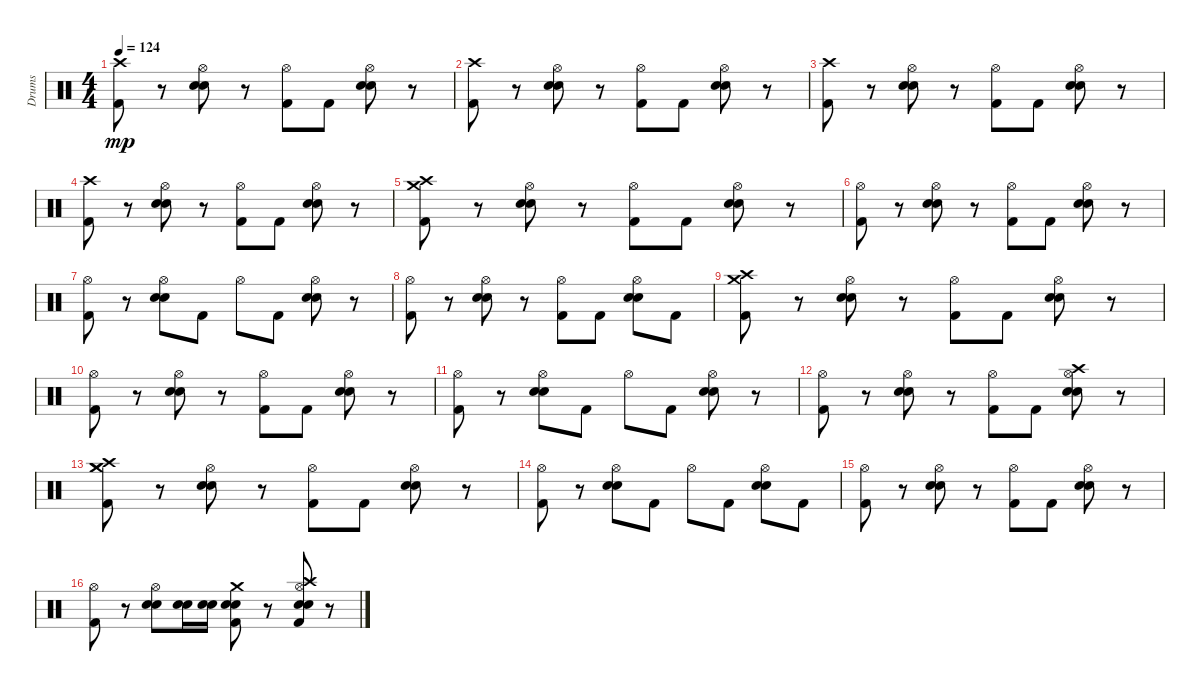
\track ("Drums" "Drums") {instrument percussion}
\staff {score}
\articulation defaults
\ts (4 4)
\tempo 124
\clef neutral
\ks c
("Kick (hit) 2" "Crash high (hit)").8{dy mp} r.8 ("Hi-Hat (open)" "Electric Snare (hit)" "Snare (hit) 2").8 r.8 ("Kick (hit) 2" "Hi-Hat (open)").8 "Kick (hit) 2".8 ("Electric Snare (hit)" "Snare (hit) 2" "Hi-Hat (open)").8 r.8 |
("Crash high (hit)" "Kick (hit) 2").8 r.8 ("Hi-Hat (open)" "Snare (hit) 2" "Electric Snare (hit)").8 r.8 ("Kick (hit) 2" "Hi-Hat (open)").8 "Kick (hit) 2".8 ("Electric Snare (hit)" "Hi-Hat (open)" "Snare (hit) 2").8 r.8 |
("Crash high (hit)" "Kick (hit) 2").8 r.8 ("Snare (hit) 2" "Hi-Hat (open)" "Electric Snare (hit)").8 r.8 ("Hi-Hat (open)" "Kick (hit) 2").8 "Kick (hit) 2".8 ("Snare (hit) 2" "Electric Snare (hit)" "Hi-Hat (open)").8 r.8 |
("Crash high (hit)" "Kick (hit) 2").8 r.8 ("Snare (hit) 2" "Hi-Hat (open)" "Electric Snare (hit)").8 r.8 ("Hi-Hat (open)" "Kick (hit) 2").8 "Kick (hit) 2".8 ("Snare (hit) 2" "Electric Snare (hit)" "Hi-Hat (open)").8 r.8 |
("Crash medium (hit)" "Crash high (hit)" "Kick (hit) 2").8 r.8 ("Electric Snare (hit)" "Hi-Hat (open)" "Snare (hit) 2").8 r.8 ("Hi-Hat (open)" "Kick (hit) 2").8 "Kick (hit) 2".8 ("Snare (hit) 2" "Electric Snare (hit)" "Hi-Hat (open)").8 r.8 |
("Kick (hit) 2" "Hi-Hat (open)").8 r.8 ("Snare (hit) 2" "Hi-Hat (open)" "Electric Snare (hit)").8 r.8 ("Kick (hit) 2" "Hi-Hat (open)").8 "Kick (hit) 2".8 ("Electric Snare (hit)" "Snare (hit) 2" "Hi-Hat (open)").8 r.8 |
("Hi-Hat (open)" "Kick (hit) 2").8 r.8 ("Snare (hit) 2" "Hi-Hat (open)" "Electric Snare (hit)").8 "Kick (hit) 2".8 "Hi-Hat (open)".8 "Kick (hit) 2".8 ("Snare (hit) 2" "Electric Snare (hit)" "Hi-Hat (open)").8 r.8 |
("Kick (hit) 2" "Hi-Hat (open)").8 r.8 ("Hi-Hat (open)" "Snare (hit) 2" "Electric Snare (hit)").8 r.8 ("Kick (hit) 2" "Hi-Hat (open)").8 "Kick (hit) 2".8 ("Snare (hit) 2" "Electric Snare (hit)" "Hi-Hat (open)").8 "Kick (hit) 2".8 |
("Kick (hit) 2" "Crash high (hit)" "Crash medium (hit)").8 r.8 ("Hi-Hat (open)" "Snare (hit) 2" "Electric Snare (hit)").8 r.8 ("Kick (hit) 2" "Hi-Hat (open)").8 "Kick (hit) 2".8 ("Hi-Hat (open)" "Electric Snare (hit)" "Snare (hit) 2").8 r.8 |
("Kick (hit) 2" "Hi-Hat (open)").8 r.8 ("Electric Snare (hit)" "Hi-Hat (open)" "Snare (hit) 2").8 r.8 ("Hi-Hat (open)" "Kick (hit) 2").8 "Kick (hit) 2".8 ("Hi-Hat (open)" "Electric Snare (hit)" "Snare (hit) 2").8 r.8 |
("Hi-Hat (open)" "Kick (hit) 2").8 r.8 ("Snare (hit) 2" "Hi-Hat (open)" "Electric Snare (hit)").8 "Kick (hit) 2".8 "Hi-Hat (open)".8 "Kick (hit) 2".8 ("Electric Snare (hit)" "Hi-Hat (open)" "Snare (hit) 2").8 r.8 |
("Hi-Hat (open)" "Kick (hit) 2").8 r.8 ("Electric Snare (hit)" "Hi-Hat (open)" "Snare (hit) 2").8 r.8 ("Kick (hit) 2" "Hi-Hat (open)").8 "Kick (hit) 2".8 ("Electric Snare (hit)" "Crash high (hit)" "Snare (hit) 2" "Hi-Hat (open)").8 r.8 |
("Kick (hit) 2" "Crash medium (hit)" "Crash high (hit)" "Crash medium (hit)").8 r.8 ("Hi-Hat (open)" "Electric Snare (hit)" "Snare (hit) 2").8 r.8 ("Hi-Hat (open)" "Kick (hit) 2").8 "Kick (hit) 2".8 ("Hi-Hat (open)" "Snare (hit) 2" "Electric Snare (hit)").8 r.8 |
("Kick (hit) 2" "Hi-Hat (open)").8 r.8 ("Electric Snare (hit)" "Snare (hit) 2" "Hi-Hat (open)").8 "Kick (hit) 2".8 "Hi-Hat (open)".8 "Kick (hit) 2".8 ("Snare (hit) 2" "Electric Snare (hit)" "Hi-Hat (open)").8 "Kick (hit) 2".8 |
("Hi-Hat (open)" "Kick (hit) 2").8 r.8 ("Electric Snare (hit)" "Hi-Hat (open)" "Snare (hit) 2").8 r.8 ("Kick (hit) 2" "Hi-Hat (open)").8 "Kick (hit) 2".8 ("Snare (hit) 2" "Electric Snare (hit)" "Hi-Hat (open)").8 r.8 |
("Kick (hit) 2" "Hi-Hat (open)").8 r.8 ("Snare (hit) 2" "Hi-Hat (open)" "Electric Snare (hit)").8 ("Snare (hit) 2" "Electric Snare (hit)").16 ("Snare (hit) 2" "Electric Snare (hit)").16 ("Snare (hit) 2" "Kick (hit) 2" "Crash medium (hit)" "Electric Snare (hit)").8 r.8 ("Crash high (hit)" "Electric Snare (hit)" "Kick (hit) 2" "Snare (hit) 2" "Hi-Hat (open)").8 r.8
